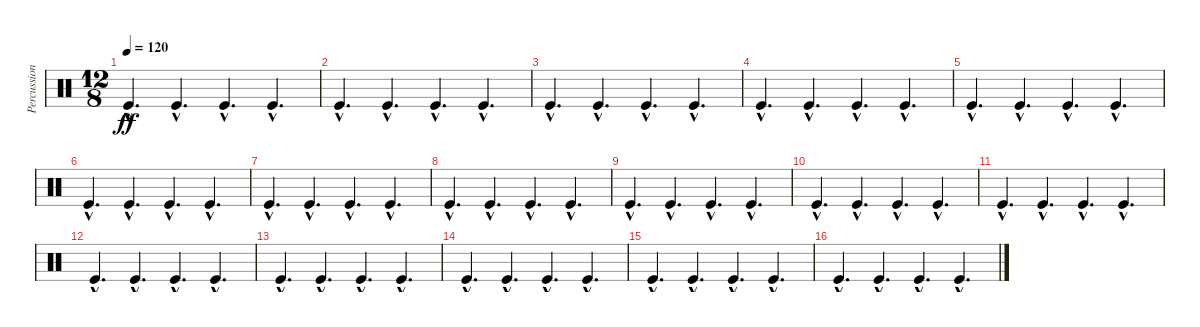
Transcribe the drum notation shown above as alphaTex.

\track ("Percussions" "Percussion") {instrument percussion}
\staff {score}
\articulation defaults
\ts (12 8)
\tempo 120
\clef neutral
\ks c "Kick (hit)"{hac}.4{d dy ff} "Kick (hit)"{hac}.4{d} "Kick (hit)"{hac}.4{d} "Kick (hit)"{hac}.4{d}
|
"Kick (hit)"{hac}.4{d} "Kick (hit)"{hac}.4{d} "Kick (hit)"{hac}.4{d} "Kick (hit)"{hac}.4{d} |
"Kick (hit)"{hac}.4{d} "Kick (hit)"{hac}.4{d} "Kick (hit)"{hac}.4{d} "Kick (hit)"{hac}.4{d} |
"Kick (hit)"{hac}.4{d} "Kick (hit)"{hac}.4{d} "Kick (hit)"{hac}.4{d} "Kick (hit)"{hac}.4{d} |
"Kick (hit)"{hac}.4{d} "Kick (hit)"{hac}.4{d} "Kick (hit)"{hac}.4{d} "Kick (hit)"{hac}.4{d} |
"Kick (hit)"{hac}.4{d} "Kick (hit)"{hac}.4{d} "Kick (hit)"{hac}.4{d} "Kick (hit)"{hac}.4{d} |
"Kick (hit)"{hac}.4{d} "Kick (hit)"{hac}.4{d} "Kick (hit)"{hac}.4{d} "Kick (hit)"{hac}.4{d} |
"Kick (hit)"{hac}.4{d} "Kick (hit)"{hac}.4{d} "Kick (hit)"{hac}.4{d} "Kick (hit)"{hac}.4{d} |
"Kick (hit)"{hac}.4{d} "Kick (hit)"{hac}.4{d} "Kick (hit)"{hac}.4{d} "Kick (hit)"{hac}.4{d} |
"Kick (hit)"{hac}.4{d} "Kick (hit)"{hac}.4{d} "Kick (hit)"{hac}.4{d} "Kick (hit)"{hac}.4{d} |
"Kick (hit)"{hac}.4{d} "Kick (hit)"{hac}.4{d} "Kick (hit)"{hac}.4{d} "Kick (hit)"{hac}.4{d} |
"Kick (hit)"{hac}.4{d} "Kick (hit)"{hac}.4{d} "Kick (hit)"{hac}.4{d} "Kick (hit)"{hac}.4{d} |
"Kick (hit)"{hac}.4{d} "Kick (hit)"{hac}.4{d} "Kick (hit)"{hac}.4{d} "Kick (hit)"{hac}.4{d} |
"Kick (hit)"{hac}.4{d} "Kick (hit)"{hac}.4{d} "Kick (hit)"{hac}.4{d} "Kick (hit)"{hac}.4{d} |
"Kick (hit)"{hac}.4{d} "Kick (hit)"{hac}.4{d} "Kick (hit)"{hac}.4{d} "Kick (hit)"{hac}.4{d} |
"Kick (hit)"{hac}.4{d} "Kick (hit)"{hac}.4{d} "Kick (hit)"{hac}.4{d} "Kick (hit)"{hac}.4{d}
